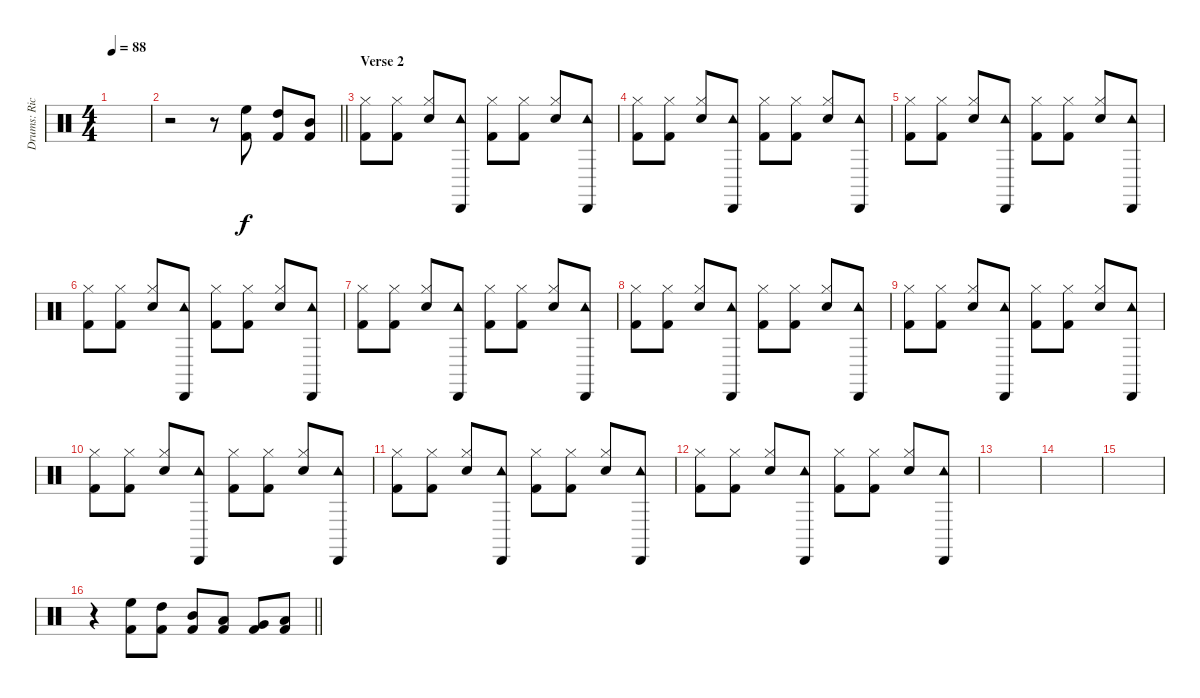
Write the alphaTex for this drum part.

\track ("Drums: Richard Allen" "Drums: Ric") {instrument percussion}
\staff {score}
\articulation defaults
\ts (4 4)
\tempo 88
\clef neutral
\ks c
|
\barLineRight lightlight
r.2 r.8 ("High Floor Tom (hit)" "Kick (hit) 2").8 ("High Tom (hit)" "Kick (hit) 2").8 ("Mid Tom (hit)" "Kick (hit) 2").8 |
\section ("" "Verse 2")
("Hi-Hat (closed)" "Kick (hit) 2").8 ("Hi-Hat (closed)" "Kick (hit) 2").8 ("Hi-Hat (closed)" "Snare (hit) 2").8 ("Cabasa (hit)" "Tambourine (hit)").8 ("Hi-Hat (closed)" "Kick (hit) 2").8 ("Hi-Hat (closed)" "Kick (hit) 2").8 ("Hi-Hat (closed)" "Snare (hit) 2").8 ("Cabasa (hit)" "Tambourine (hit)").8 |
("Hi-Hat (closed)" "Kick (hit) 2").8 ("Hi-Hat (closed)" "Kick (hit) 2").8 ("Hi-Hat (closed)" "Snare (hit) 2").8 ("Cabasa (hit)" "Tambourine (hit)").8 ("Hi-Hat (closed)" "Kick (hit) 2").8 ("Hi-Hat (closed)" "Kick (hit) 2").8 ("Hi-Hat (closed)" "Snare (hit) 2").8 ("Cabasa (hit)" "Tambourine (hit)").8 |
("Hi-Hat (closed)" "Kick (hit) 2").8 ("Hi-Hat (closed)" "Kick (hit) 2").8 ("Hi-Hat (closed)" "Snare (hit) 2").8 ("Cabasa (hit)" "Tambourine (hit)").8 ("Hi-Hat (closed)" "Kick (hit) 2").8 ("Hi-Hat (closed)" "Kick (hit) 2").8 ("Hi-Hat (closed)" "Snare (hit) 2").8 ("Cabasa (hit)" "Tambourine (hit)").8 |
("Hi-Hat (closed)" "Kick (hit) 2").8 ("Hi-Hat (closed)" "Kick (hit) 2").8 ("Hi-Hat (closed)" "Snare (hit) 2").8 ("Cabasa (hit)" "Tambourine (hit)").8 ("Hi-Hat (closed)" "Kick (hit) 2").8 ("Hi-Hat (closed)" "Kick (hit) 2").8 ("Hi-Hat (closed)" "Snare (hit) 2").8 ("Cabasa (hit)" "Tambourine (hit)").8 |
("Hi-Hat (closed)" "Kick (hit) 2").8 ("Hi-Hat (closed)" "Kick (hit) 2").8 ("Hi-Hat (closed)" "Snare (hit) 2").8 ("Cabasa (hit)" "Tambourine (hit)").8 ("Hi-Hat (closed)" "Kick (hit) 2").8 ("Hi-Hat (closed)" "Kick (hit) 2").8 ("Hi-Hat (closed)" "Snare (hit) 2").8 ("Cabasa (hit)" "Tambourine (hit)").8 |
("Hi-Hat (closed)" "Kick (hit) 2").8 ("Hi-Hat (closed)" "Kick (hit) 2").8 ("Hi-Hat (closed)" "Snare (hit) 2").8 ("Cabasa (hit)" "Tambourine (hit)").8 ("Hi-Hat (closed)" "Kick (hit) 2").8 ("Hi-Hat (closed)" "Kick (hit) 2").8 ("Hi-Hat (closed)" "Snare (hit) 2").8 ("Cabasa (hit)" "Tambourine (hit)").8 |
("Hi-Hat (closed)" "Kick (hit) 2").8 ("Hi-Hat (closed)" "Kick (hit) 2").8 ("Hi-Hat (closed)" "Snare (hit) 2").8 ("Cabasa (hit)" "Tambourine (hit)").8 ("Hi-Hat (closed)" "Kick (hit) 2").8 ("Hi-Hat (closed)" "Kick (hit) 2").8 ("Hi-Hat (closed)" "Snare (hit) 2").8 ("Cabasa (hit)" "Tambourine (hit)").8 |
("Hi-Hat (closed)" "Kick (hit) 2").8 ("Hi-Hat (closed)" "Kick (hit) 2").8 ("Hi-Hat (closed)" "Snare (hit) 2").8 ("Cabasa (hit)" "Tambourine (hit)").8 ("Hi-Hat (closed)" "Kick (hit) 2").8 ("Hi-Hat (closed)" "Kick (hit) 2").8 ("Hi-Hat (closed)" "Snare (hit) 2").8 ("Cabasa (hit)" "Tambourine (hit)").8 |
("Hi-Hat (closed)" "Kick (hit) 2").8 ("Hi-Hat (closed)" "Kick (hit) 2").8 ("Hi-Hat (closed)" "Snare (hit) 2").8 ("Cabasa (hit)" "Tambourine (hit)").8 ("Hi-Hat (closed)" "Kick (hit) 2").8 ("Hi-Hat (closed)" "Kick (hit) 2").8 ("Hi-Hat (closed)" "Snare (hit) 2").8 ("Cabasa (hit)" "Tambourine (hit)").8 |
("Hi-Hat (closed)" "Kick (hit) 2").8 ("Hi-Hat (closed)" "Kick (hit) 2").8 ("Hi-Hat (closed)" "Snare (hit) 2").8 ("Cabasa (hit)" "Tambourine (hit)").8 ("Hi-Hat (closed)" "Kick (hit) 2").8 ("Hi-Hat (closed)" "Kick (hit) 2").8 ("Hi-Hat (closed)" "Snare (hit) 2").8 ("Cabasa (hit)" "Tambourine (hit)").8 |
|
|
|
\barLineRight lightlight
r.4 ("High Floor Tom (hit)" "Kick (hit) 2").8 ("High Tom (hit)" "Kick (hit) 2").8 ("Mid Tom (hit)" "Kick (hit) 2").8 ("Low Tom (hit)" "Kick (hit) 2").8 ("Very Low Tom (hit)" "Kick (hit) 2").8 ("Low Floor Tom (hit)" "Kick (hit) 2").8
